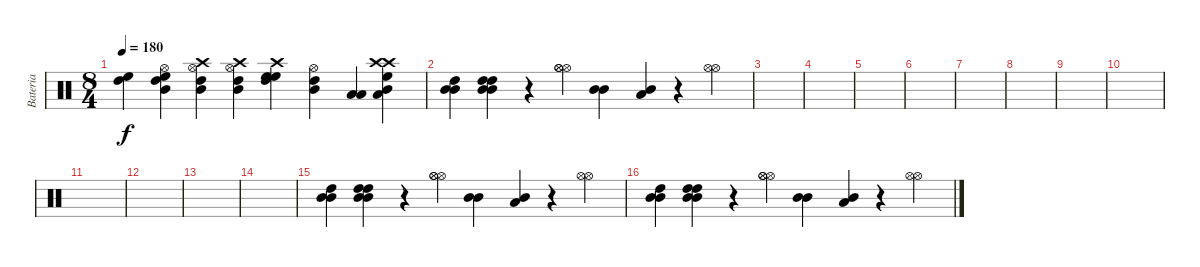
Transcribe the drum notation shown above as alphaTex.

\track ("Bateria" "Bateria") {instrument percussion}
\staff {score}
\articulation defaults
\ts (8 4)
\tempo 180
\clef neutral
\ks c
("High Tom (hit)" "High Floor Tom (hit)").4{dy f} ("High Tom (hit)" "Mid Tom (hit)" "Hi-Hat (open)" "High Floor Tom (hit)").4 ("High Tom (hit)" "Crash high (hit)" "Mid Tom (hit)" "Hi-Hat (open)").4 ("Crash high (hit)" "High Tom (hit)" "Mid Tom (hit)" "Hi-Hat (open)").4 ("High Tom (hit)" "Crash high (hit)" "High Floor Tom (hit)" "High Floor Tom (hit)").4 ("Mid Tom (hit)" "High Tom (hit)" "Hi-Hat (open)").4 ("Low Tom (hit)" "Low Tom (hit)").4 ("Crash high (hit)" "Mid Tom (hit)" "High Floor Tom (hit)" "Crash high (hit)" "Low Tom (hit)").4 |
("High Tom (hit)" "Mid Tom (hit)" "Mid Tom (hit)").4 ("High Tom (hit)" "High Tom (hit)" "Mid Tom (hit)" "Mid Tom (hit)").4 r.4 ("Hi-Hat (open)" "Hi-Hat (open)" "Hi-Hat (open)").4 ("Mid Tom (hit)" "Mid Tom (hit)").4 ("Low Tom (hit)" "Mid Tom (hit)").4 r.4 ("Hi-Hat (open)" "Hi-Hat (open)").4 |
|
|
|
|
|
|
|
|
|
|
|
|
("High Tom (hit)" "Mid Tom (hit)" "Mid Tom (hit)").4 ("High Tom (hit)" "High Tom (hit)" "Mid Tom (hit)" "Mid Tom (hit)").4 r.4 ("Hi-Hat (open)" "Hi-Hat (open)" "Hi-Hat (open)").4 ("Mid Tom (hit)" "Mid Tom (hit)").4 ("Low Tom (hit)" "Mid Tom (hit)").4 r.4 ("Hi-Hat (open)" "Hi-Hat (open)").4 |
("High Tom (hit)" "Mid Tom (hit)" "Mid Tom (hit)").4 ("High Tom (hit)" "High Tom (hit)" "Mid Tom (hit)" "Mid Tom (hit)").4 r.4 ("Hi-Hat (open)" "Hi-Hat (open)" "Hi-Hat (open)").4 ("Mid Tom (hit)" "Mid Tom (hit)").4 ("Low Tom (hit)" "Mid Tom (hit)").4 r.4 ("Hi-Hat (open)" "Hi-Hat (open)").4
